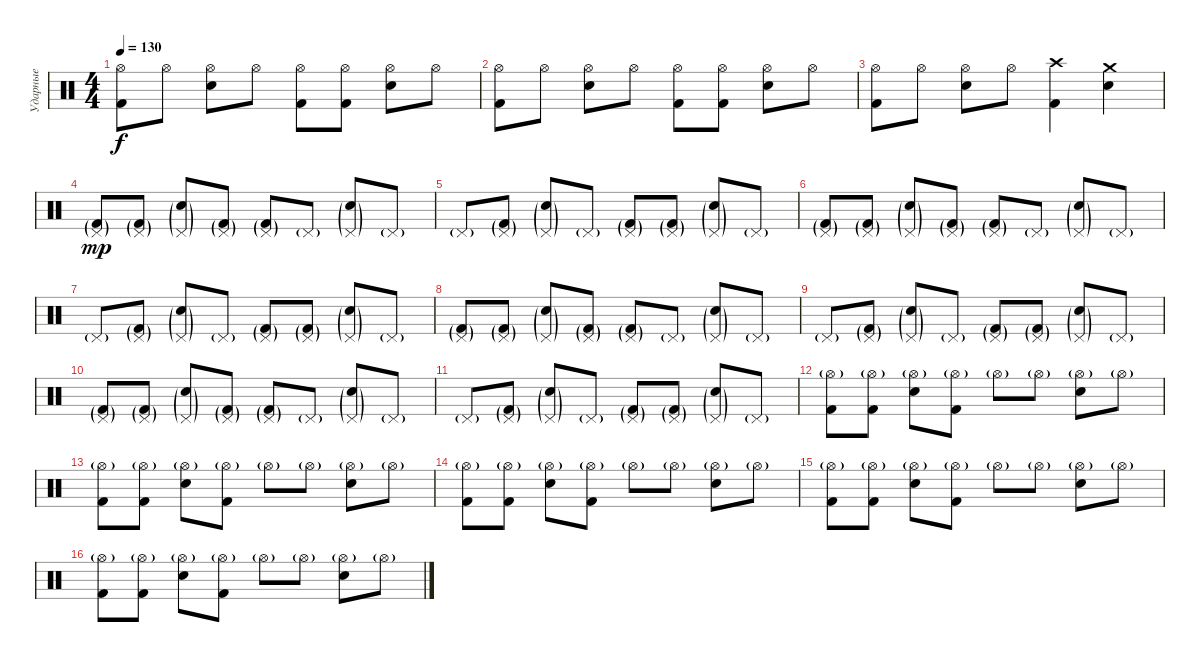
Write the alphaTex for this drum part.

\track ("Ударные" "Ударные") {instrument percussion}
\staff {score}
\articulation defaults
\ts (4 4)
\tempo 130
\clef neutral
\ks c
("Hi-Hat (open)" "Kick (hit) 2").8{dy f} "Hi-Hat (open)".8 ("Electric Snare (hit)" "Hi-Hat (open)").8 "Hi-Hat (open)".8 ("Hi-Hat (open)" "Kick (hit) 2").8 ("Hi-Hat (open)" "Kick (hit) 2").8 ("Hi-Hat (open)" "Electric Snare (hit)").8 "Hi-Hat (open)".8 |
("Hi-Hat (open)" "Kick (hit) 2").8 "Hi-Hat (open)".8 ("Electric Snare (hit)" "Hi-Hat (open)").8 "Hi-Hat (open)".8 ("Hi-Hat (open)" "Kick (hit) 2").8 ("Hi-Hat (open)" "Kick (hit) 2").8 ("Hi-Hat (open)" "Electric Snare (hit)").8 "Hi-Hat (open)".8 |
("Hi-Hat (open)" "Kick (hit) 2").8 "Hi-Hat (open)".8 ("Electric Snare (hit)" "Hi-Hat (open)").8 "Hi-Hat (open)".8 ("Crash high (hit)" "Kick (hit) 2").4 ("Crash medium (hit)" "Electric Snare (hit)").4 |
("Kick (hit) 2"{g} "Pedal Hi-Hat (hit)"{g}).8{dy mp volume 16} ("Kick (hit) 2"{g} "Pedal Hi-Hat (hit)"{g}).8 ("Snare (hit) 2"{g} "Pedal Hi-Hat (hit)"{g}).8 ("Kick (hit) 2"{g} "Pedal Hi-Hat (hit)"{g}).8 ("Kick (hit) 2"{g} "Pedal Hi-Hat (hit)"{g}).8 "Pedal Hi-Hat (hit)"{g}.8 ("Snare (hit) 2"{g} "Pedal Hi-Hat (hit)"{g}).8 "Pedal Hi-Hat (hit)"{g}.8 |
"Pedal Hi-Hat (hit)"{g}.8 ("Kick (hit) 2"{g} "Pedal Hi-Hat (hit)"{g}).8 ("Snare (hit) 2"{g} "Pedal Hi-Hat (hit)"{g}).8 "Pedal Hi-Hat (hit)"{g}.8 ("Kick (hit) 2"{g} "Pedal Hi-Hat (hit)"{g}).8 ("Kick (hit) 2"{g} "Pedal Hi-Hat (hit)"{g}).8 ("Snare (hit) 2"{g} "Pedal Hi-Hat (hit)"{g}).8 "Pedal Hi-Hat (hit)"{g}.8 |
("Kick (hit) 2"{g} "Pedal Hi-Hat (hit)"{g}).8 ("Kick (hit) 2"{g} "Pedal Hi-Hat (hit)"{g}).8 ("Snare (hit) 2"{g} "Pedal Hi-Hat (hit)"{g}).8 ("Kick (hit) 2"{g} "Pedal Hi-Hat (hit)"{g}).8 ("Kick (hit) 2"{g} "Pedal Hi-Hat (hit)"{g}).8 "Pedal Hi-Hat (hit)"{g}.8 ("Snare (hit) 2"{g} "Pedal Hi-Hat (hit)"{g}).8 "Pedal Hi-Hat (hit)"{g}.8 |
"Pedal Hi-Hat (hit)"{g}.8 ("Kick (hit) 2"{g} "Pedal Hi-Hat (hit)"{g}).8 ("Snare (hit) 2"{g} "Pedal Hi-Hat (hit)"{g}).8 "Pedal Hi-Hat (hit)"{g}.8 ("Kick (hit) 2"{g} "Pedal Hi-Hat (hit)"{g}).8 ("Kick (hit) 2"{g} "Pedal Hi-Hat (hit)"{g}).8 ("Snare (hit) 2"{g} "Pedal Hi-Hat (hit)"{g}).8 "Pedal Hi-Hat (hit)"{g}.8 |
("Kick (hit) 2"{g} "Pedal Hi-Hat (hit)"{g}).8 ("Kick (hit) 2"{g} "Pedal Hi-Hat (hit)"{g}).8 ("Snare (hit) 2"{g} "Pedal Hi-Hat (hit)"{g}).8 ("Kick (hit) 2"{g} "Pedal Hi-Hat (hit)"{g}).8 ("Kick (hit) 2"{g} "Pedal Hi-Hat (hit)"{g}).8 "Pedal Hi-Hat (hit)"{g}.8 ("Snare (hit) 2"{g} "Pedal Hi-Hat (hit)"{g}).8 "Pedal Hi-Hat (hit)"{g}.8 |
"Pedal Hi-Hat (hit)"{g}.8 ("Kick (hit) 2"{g} "Pedal Hi-Hat (hit)"{g}).8 ("Snare (hit) 2"{g} "Pedal Hi-Hat (hit)"{g}).8 "Pedal Hi-Hat (hit)"{g}.8 ("Kick (hit) 2"{g} "Pedal Hi-Hat (hit)"{g}).8 ("Kick (hit) 2"{g} "Pedal Hi-Hat (hit)"{g}).8 ("Snare (hit) 2"{g} "Pedal Hi-Hat (hit)"{g}).8 "Pedal Hi-Hat (hit)"{g}.8 |
("Kick (hit) 2"{g} "Pedal Hi-Hat (hit)"{g}).8 ("Kick (hit) 2"{g} "Pedal Hi-Hat (hit)"{g}).8 ("Snare (hit) 2"{g} "Pedal Hi-Hat (hit)"{g}).8 ("Kick (hit) 2"{g} "Pedal Hi-Hat (hit)"{g}).8 ("Kick (hit) 2"{g} "Pedal Hi-Hat (hit)"{g}).8 "Pedal Hi-Hat (hit)"{g}.8 ("Snare (hit) 2"{g} "Pedal Hi-Hat (hit)"{g}).8 "Pedal Hi-Hat (hit)"{g}.8 |
"Pedal Hi-Hat (hit)"{g}.8 ("Kick (hit) 2"{g} "Pedal Hi-Hat (hit)"{g}).8 ("Snare (hit) 2"{g} "Pedal Hi-Hat (hit)"{g}).8 "Pedal Hi-Hat (hit)"{g}.8 ("Kick (hit) 2"{g} "Pedal Hi-Hat (hit)"{g}).8 ("Kick (hit) 2"{g} "Pedal Hi-Hat (hit)"{g}).8 ("Snare (hit) 2"{g} "Pedal Hi-Hat (hit)"{g}).8 "Pedal Hi-Hat (hit)"{g}.8 |
("Kick (hit) 2" "Hi-Hat (open)"{g}).8{volume 13} ("Kick (hit) 2" "Hi-Hat (open)"{g}).8 ("Electric Snare (hit)" "Hi-Hat (open)"{g}).8 ("Kick (hit) 2" "Hi-Hat (open)"{g}).8 "Hi-Hat (open)"{g}.8 "Hi-Hat (open)"{g}.8 ("Electric Snare (hit)" "Hi-Hat (open)"{g}).8 "Hi-Hat (open)"{g}.8 |
("Kick (hit) 2" "Hi-Hat (open)"{g}).8 ("Kick (hit) 2" "Hi-Hat (open)"{g}).8 ("Electric Snare (hit)" "Hi-Hat (open)"{g}).8 ("Kick (hit) 2" "Hi-Hat (open)"{g}).8 "Hi-Hat (open)"{g}.8 "Hi-Hat (open)"{g}.8 ("Electric Snare (hit)" "Hi-Hat (open)"{g}).8 "Hi-Hat (open)"{g}.8 |
("Kick (hit) 2" "Hi-Hat (open)"{g}).8 ("Kick (hit) 2" "Hi-Hat (open)"{g}).8 ("Electric Snare (hit)" "Hi-Hat (open)"{g}).8 ("Kick (hit) 2" "Hi-Hat (open)"{g}).8 "Hi-Hat (open)"{g}.8 "Hi-Hat (open)"{g}.8 ("Electric Snare (hit)" "Hi-Hat (open)"{g}).8 "Hi-Hat (open)"{g}.8 |
("Kick (hit) 2" "Hi-Hat (open)"{g}).8 ("Kick (hit) 2" "Hi-Hat (open)"{g}).8 ("Electric Snare (hit)" "Hi-Hat (open)"{g}).8 ("Kick (hit) 2" "Hi-Hat (open)"{g}).8 "Hi-Hat (open)"{g}.8 "Hi-Hat (open)"{g}.8 ("Electric Snare (hit)" "Hi-Hat (open)"{g}).8 "Hi-Hat (open)"{g}.8 |
("Kick (hit) 2" "Hi-Hat (open)"{g}).8{volume 13} ("Kick (hit) 2" "Hi-Hat (open)"{g}).8 ("Electric Snare (hit)" "Hi-Hat (open)"{g}).8 ("Kick (hit) 2" "Hi-Hat (open)"{g}).8 "Hi-Hat (open)"{g}.8 "Hi-Hat (open)"{g}.8 ("Electric Snare (hit)" "Hi-Hat (open)"{g}).8 "Hi-Hat (open)"{g}.8
